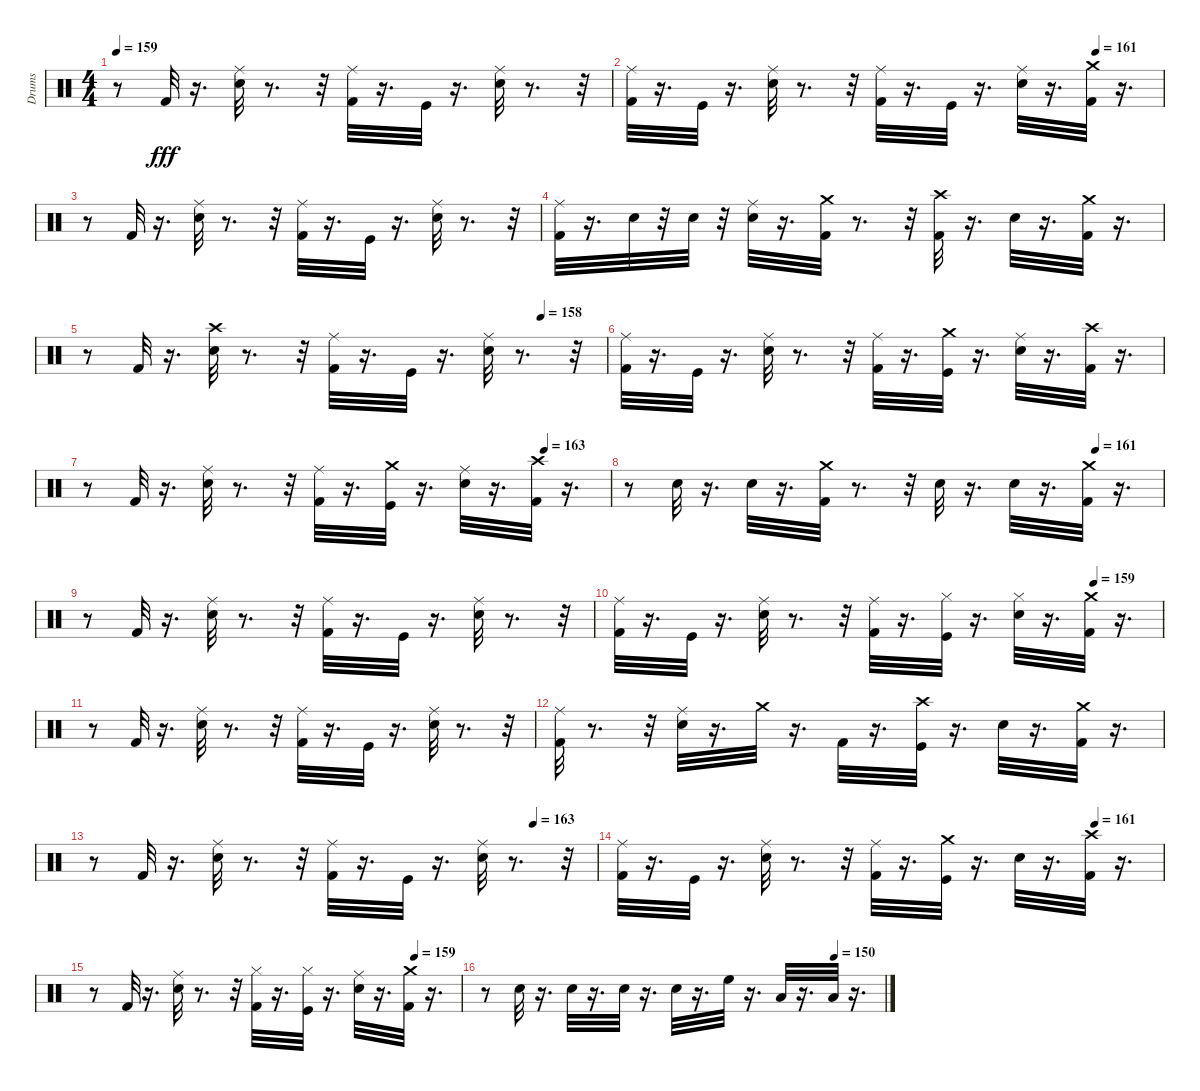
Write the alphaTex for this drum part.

\track ("Drums" "Drums") {instrument percussion}
\staff {score}
\articulation defaults
\ts (4 4)
\tempo 159
\clef neutral
\ks c
r.8{dy fff} "Kick (hit) 2".32 r.16{d} ("Snare (hit) 2" "Ride (middle)").32 r.8{d} r.32 ("Kick (hit) 2" "Ride (middle)").32 r.16{d} "Kick (hit)".32 r.16{d} ("Snare (hit) 2" "Ride (middle)").32 r.8{d} r.32 |
\tempo (161 0.875)
("Kick (hit) 2" "Ride (middle)").32 r.16{d} "Kick (hit)".32 r.16{d} ("Snare (hit) 2" "Ride (middle)").32 r.8{d} r.32 ("Ride (middle)" "Kick (hit) 2").32 r.16{d} "Kick (hit)".32 r.16{d} ("Snare (hit) 2" "Ride (middle)").32 r.16{d} ("Kick (hit) 2" "Crash medium (hit)").32 r.16{d} |
r.8 "Kick (hit) 2".32 r.16{d} ("Snare (hit) 2" "Ride (middle)").32 r.8{d} r.32 ("Kick (hit) 2" "Ride (middle)").32 r.16{d} "Kick (hit)".32 r.16{d} ("Snare (hit) 2" "Ride (middle)").32 r.8{d} r.32 |
("Kick (hit) 2" "Ride (middle)").32 r.16{d} "Snare (hit) 2".32 r.32 "Snare (hit) 2".32 r.32 ("Snare (hit) 2" "Ride (middle)").32 r.16{d} ("Kick (hit) 2" "Crash medium (hit)").32 r.8{d} r.32 ("Kick (hit) 2" "Crash high (hit)").32 r.16{d} "Snare (hit) 2".32 r.16{d} ("Kick (hit) 2" "Crash medium (hit)").32 r.16{d} |
\tempo (158 0.875)
r.8 "Kick (hit) 2".32 r.16{d} ("Snare (hit) 2" "Crash high (hit)").32 r.8{d} r.32 ("Kick (hit) 2" "Ride (middle)").32 r.16{d} "Kick (hit)".32 r.16{d} ("Snare (hit) 2" "Ride (middle)").32 r.8{d} r.32 |
("Kick (hit) 2" "Ride (middle)").32 r.16{d} "Kick (hit)".32 r.16{d} ("Snare (hit) 2" "Ride (middle)").32 r.8{d} r.32 ("Kick (hit) 2" "Ride (middle)").32 r.16{d} ("Kick (hit)" "Crash medium (hit)").32 r.16{d} ("Snare (hit) 2" "Ride (middle)").32 r.16{d} ("Kick (hit) 2" "Crash high (hit)").32 r.16{d} |
\tempo (163 0.875)
r.8 "Kick (hit) 2".32 r.16{d} ("Snare (hit) 2" "Ride (middle)").32 r.8{d} r.32 ("Kick (hit) 2" "Ride (middle)").32 r.16{d} ("Kick (hit)" "Crash medium (hit)").32 r.16{d} ("Snare (hit) 2" "Ride (middle)").32 r.16{d} ("Kick (hit) 2" "Crash high (hit)").32 r.16{d} |
\tempo (161 0.875)
r.8 "Snare (hit) 2".32 r.16{d} "Snare (hit) 2".32 r.16{d} ("Kick (hit) 2" "Crash medium (hit)").32 r.8{d} r.32 "Snare (hit) 2".32 r.16{d} "Snare (hit) 2".32 r.16{d} ("Kick (hit) 2" "Crash medium (hit)").32 r.16{d} |
r.8 "Kick (hit) 2".32 r.16{d} ("Snare (hit) 2" "Ride (middle)").32 r.8{d} r.32 ("Kick (hit) 2" "Ride (middle)").32 r.16{d} "Kick (hit)".32 r.16{d} ("Snare (hit) 2" "Ride (middle)").32 r.8{d} r.32 |
\tempo (159 0.875)
("Kick (hit) 2" "Ride (middle)").32 r.16{d} "Kick (hit)".32 r.16{d} ("Snare (hit) 2" "Ride (middle)").32 r.8{d} r.32 ("Kick (hit) 2" "Ride (middle)").32 r.16{d} ("Kick (hit)" "Hi-Hat (closed)").32 r.16{d} ("Snare (hit) 2" "Hi-Hat (closed)").32 r.16{d} ("Kick (hit) 2" "Crash medium (hit)").32 r.16{d} |
r.8 "Kick (hit) 2".32 r.16{d} ("Snare (hit) 2" "Ride (middle)").32 r.8{d} r.32 ("Kick (hit) 2" "Ride (middle)").32 r.16{d} "Kick (hit)".32 r.16{d} ("Snare (hit) 2" "Ride (middle)").32 r.8{d} r.32 |
("Kick (hit) 2" "Ride (middle)").32 r.8{d} r.32 ("Snare (hit) 2" "Ride (middle)").32 r.16{d} "Crash medium (hit)".32 r.16{d} "Kick (hit) 2".32 r.16{d} ("Kick (hit)" "Crash high (hit)").32 r.16{d} "Snare (hit) 2".32 r.16{d} ("Kick (hit) 2" "Crash medium (hit)").32 r.16{d} |
\tempo (163 0.875)
r.8 "Kick (hit) 2".32 r.16{d} ("Snare (hit) 2" "Ride (middle)").32 r.8{d} r.32 ("Kick (hit) 2" "Ride (middle)").32 r.16{d} "Kick (hit)".32 r.16{d} ("Snare (hit) 2" "Ride (middle)").32 r.8{d} r.32 |
\tempo (161 0.875)
("Kick (hit) 2" "Ride (middle)").32 r.16{d} "Kick (hit)".32 r.16{d} ("Snare (hit) 2" "Ride (middle)").32 r.8{d} r.32 ("Kick (hit) 2" "Ride (middle)").32 r.16{d} ("Kick (hit)" "Crash medium (hit)").32 r.16{d} "Snare (hit) 2".32 r.16{d} ("Kick (hit) 2" "Crash high (hit)").32 r.16{d} |
\tempo (159 0.875)
r.8 "Kick (hit) 2".32 r.16{d} ("Snare (hit) 2" "Ride (middle)").32 r.8{d} r.32 ("Kick (hit) 2" "Hi-Hat (closed)").32 r.16{d} ("Kick (hit)" "Hi-Hat (closed)").32 r.16{d} ("Snare (hit) 2" "Ride (middle)").32 r.16{d} ("Kick (hit) 2" "Crash medium (hit)").32 r.16{d} |
\tempo (150 0.875)
r.8 "Snare (hit) 2".32 r.16{d} "Snare (hit) 2".32 r.16{d} "Snare (hit) 2".32 r.16{d} "Snare (hit) 2".32 r.16{d} "High Floor Tom (hit)".32 r.16{d} "Low Tom (hit)".32 r.16{d} "Low Floor Tom (hit)".32 r.16{d}
